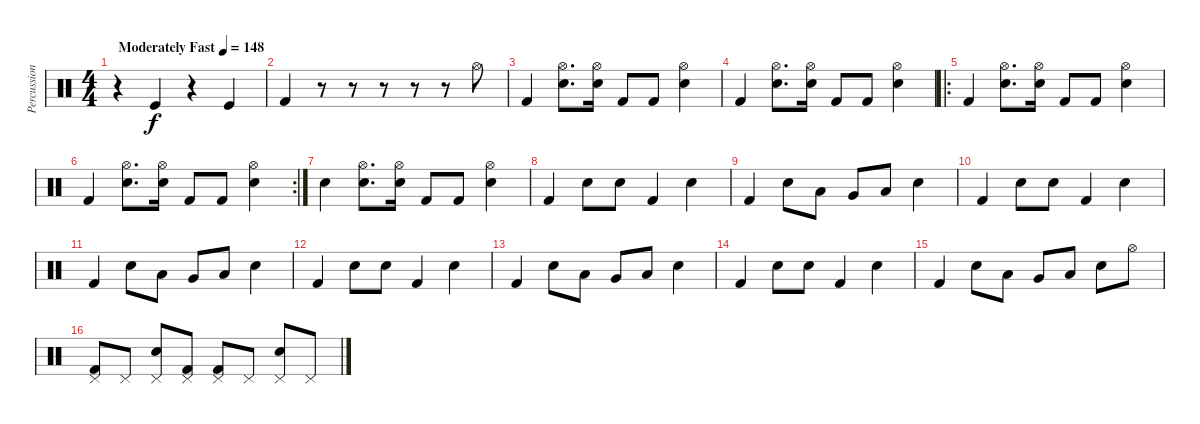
\track ("Percussion" "Percussion") {instrument percussion}
\staff {score}
\articulation defaults
\ts (4 4)
\tempo (148 "Moderately Fast")
\clef neutral
\ks c
r.4{dy f} "Kick (hit)".4 r.4 "Kick (hit)".4 |
"Kick (hit) 2".4 r.8 r.8 r.8 r.8 r.8 "Hi-Hat (open)".8 |
"Kick (hit) 2".4 ("Hi-Hat (open)" "Electric Snare (hit)").8{d} ("Hi-Hat (open)" "Electric Snare (hit)").16 "Kick (hit) 2".8 "Kick (hit) 2".8 ("Hi-Hat (open)" "Electric Snare (hit)").4 |
"Kick (hit) 2".4 ("Hi-Hat (open)" "Electric Snare (hit)").8{d} ("Hi-Hat (open)" "Electric Snare (hit)").16 "Kick (hit) 2".8 "Kick (hit) 2".8 ("Hi-Hat (open)" "Electric Snare (hit)").4 |
\ro "Kick (hit) 2".4
("Hi-Hat (open)" "Electric Snare (hit)").8{d} ("Hi-Hat (open)" "Electric Snare (hit)").16 "Kick (hit) 2".8 "Kick (hit) 2".8 ("Hi-Hat (open)" "Electric Snare (hit)").4 |
\rc 2 "Kick (hit) 2".4
("Hi-Hat (open)" "Electric Snare (hit)").8{d} ("Hi-Hat (open)" "Electric Snare (hit)").16 "Kick (hit) 2".8 "Kick (hit) 2".8 ("Hi-Hat (open)" "Electric Snare (hit)").4 |
"Electric Snare (hit)".4 ("Hi-Hat (open)" "Electric Snare (hit)").8{d} ("Hi-Hat (open)" "Electric Snare (hit)").16 "Kick (hit) 2".8 "Kick (hit) 2".8 ("Hi-Hat (open)" "Electric Snare (hit)").4 |
"Kick (hit) 2".4 "Electric Snare (hit)".8 "Electric Snare (hit)".8 "Kick (hit) 2".4 "Electric Snare (hit)".4 |
"Kick (hit) 2".4 "Electric Snare (hit)".8 "Low Tom (hit)".8 "Very Low Tom (hit)".8 "Low Floor Tom (hit)".8 "Electric Snare (hit)".4 |
"Kick (hit) 2".4 "Electric Snare (hit)".8 "Electric Snare (hit)".8 "Kick (hit) 2".4 "Electric Snare (hit)".4 |
"Kick (hit) 2".4 "Electric Snare (hit)".8 "Low Tom (hit)".8 "Very Low Tom (hit)".8 "Low Floor Tom (hit)".8 "Electric Snare (hit)".4 |
"Kick (hit) 2".4 "Electric Snare (hit)".8 "Electric Snare (hit)".8 "Kick (hit) 2".4 "Electric Snare (hit)".4 |
"Kick (hit) 2".4 "Electric Snare (hit)".8 "Low Tom (hit)".8 "Very Low Tom (hit)".8 "Low Floor Tom (hit)".8 "Electric Snare (hit)".4 |
"Kick (hit) 2".4 "Electric Snare (hit)".8 "Electric Snare (hit)".8 "Kick (hit) 2".4 "Electric Snare (hit)".4 |
"Kick (hit) 2".4 "Electric Snare (hit)".8 "Low Tom (hit)".8 "Very Low Tom (hit)".8 "Low Floor Tom (hit)".8 "Electric Snare (hit)".8 "Hi-Hat (open)".8 |
("Pedal Hi-Hat (hit)" "Kick (hit) 2").8 "Pedal Hi-Hat (hit)".8 ("Pedal Hi-Hat (hit)" "Electric Snare (hit)").8 ("Pedal Hi-Hat (hit)" "Kick (hit) 2").8 ("Pedal Hi-Hat (hit)" "Kick (hit) 2").8 "Pedal Hi-Hat (hit)".8 ("Pedal Hi-Hat (hit)" "Electric Snare (hit)").8 "Pedal Hi-Hat (hit)".8
